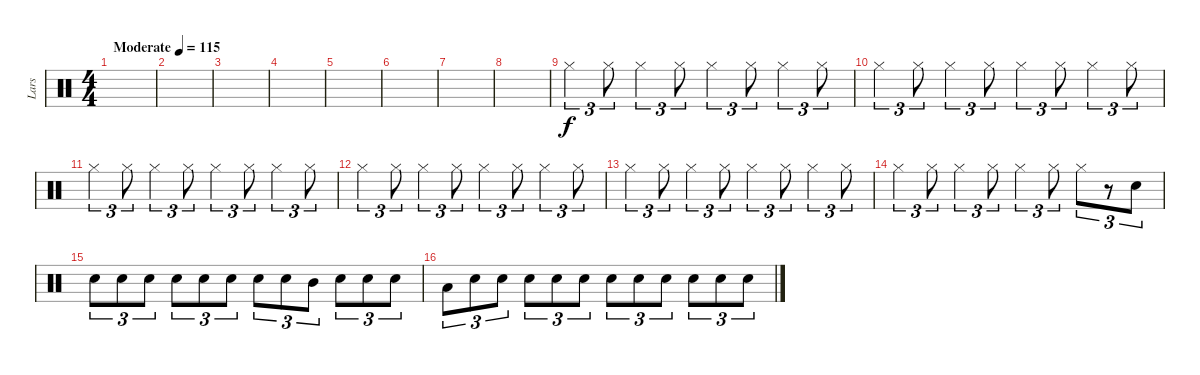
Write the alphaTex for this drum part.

\track ("Lars" "Lars") {instrument percussion}
\staff {score}
\articulation defaults
\ts (4 4)
\tempo (115 "Moderate")
\clef neutral
\ks c
|
|
|
|
|
|
|
|
"Hi-Hat (closed)".4{tu (3 2)} "Hi-Hat (closed)".8{tu (3 2)} "Hi-Hat (closed)".4{tu (3 2)} "Hi-Hat (closed)".8{tu (3 2)} "Hi-Hat (closed)".4{tu (3 2)} "Hi-Hat (closed)".8{tu (3 2)} "Hi-Hat (closed)".4{tu (3 2)} "Hi-Hat (closed)".8{tu (3 2)} |
"Hi-Hat (closed)".4{tu (3 2)} "Hi-Hat (closed)".8{tu (3 2)} "Hi-Hat (closed)".4{tu (3 2)} "Hi-Hat (closed)".8{tu (3 2)} "Hi-Hat (closed)".4{tu (3 2)} "Hi-Hat (closed)".8{tu (3 2)} "Hi-Hat (closed)".4{tu (3 2)} "Hi-Hat (closed)".8{tu (3 2)} |
"Hi-Hat (closed)".4{tu (3 2)} "Hi-Hat (closed)".8{tu (3 2)} "Hi-Hat (closed)".4{tu (3 2)} "Hi-Hat (closed)".8{tu (3 2)} "Hi-Hat (closed)".4{tu (3 2)} "Hi-Hat (closed)".8{tu (3 2)} "Hi-Hat (closed)".4{tu (3 2)} "Hi-Hat (closed)".8{tu (3 2)} |
"Hi-Hat (closed)".4{tu (3 2)} "Hi-Hat (closed)".8{tu (3 2)} "Hi-Hat (closed)".4{tu (3 2)} "Hi-Hat (closed)".8{tu (3 2)} "Hi-Hat (closed)".4{tu (3 2)} "Hi-Hat (closed)".8{tu (3 2)} "Hi-Hat (closed)".4{tu (3 2)} "Hi-Hat (closed)".8{tu (3 2)} |
"Hi-Hat (closed)".4{tu (3 2)} "Hi-Hat (closed)".8{tu (3 2)} "Hi-Hat (closed)".4{tu (3 2)} "Hi-Hat (closed)".8{tu (3 2)} "Hi-Hat (closed)".4{tu (3 2)} "Hi-Hat (closed)".8{tu (3 2)} "Hi-Hat (closed)".4{tu (3 2)} "Hi-Hat (closed)".8{tu (3 2)} |
"Hi-Hat (closed)".4{tu (3 2)} "Hi-Hat (closed)".8{tu (3 2)} "Hi-Hat (closed)".4{tu (3 2)} "Hi-Hat (closed)".8{tu (3 2)} "Hi-Hat (closed)".4{tu (3 2)} "Hi-Hat (closed)".8{tu (3 2)} "Hi-Hat (closed)".8{tu (3 2)} r.8{tu (3 2) volume 10} "Electric Snare (hit)".8{tu (3 2) volume 16} |
"Electric Snare (hit)".8{tu (3 2)} "Electric Snare (hit)".8{tu (3 2)} "Electric Snare (hit)".8{tu (3 2)} "Electric Snare (hit)".8{tu (3 2)} "Electric Snare (hit)".8{tu (3 2)} "Electric Snare (hit)".8{tu (3 2)} "Electric Snare (hit)".8{tu (3 2)} "Electric Snare (hit)".8{tu (3 2)} "Mid Tom (hit)".8{tu (3 2)} "Electric Snare (hit)".8{tu (3 2)} "Electric Snare (hit)".8{tu (3 2)} "Electric Snare (hit)".8{tu (3 2)} |
"Low Tom (hit)".8{tu (3 2)} "Electric Snare (hit)".8{tu (3 2)} "Electric Snare (hit)".8{tu (3 2)} "Electric Snare (hit)".8{tu (3 2)} "Electric Snare (hit)".8{tu (3 2)} "Electric Snare (hit)".8{tu (3 2)} "Electric Snare (hit)".8{tu (3 2)} "Electric Snare (hit)".8{tu (3 2)} "Electric Snare (hit)".8{tu (3 2)} "Electric Snare (hit)".8{tu (3 2)} "Electric Snare (hit)".8{tu (3 2)} "Electric Snare (hit)".8{tu (3 2)}
